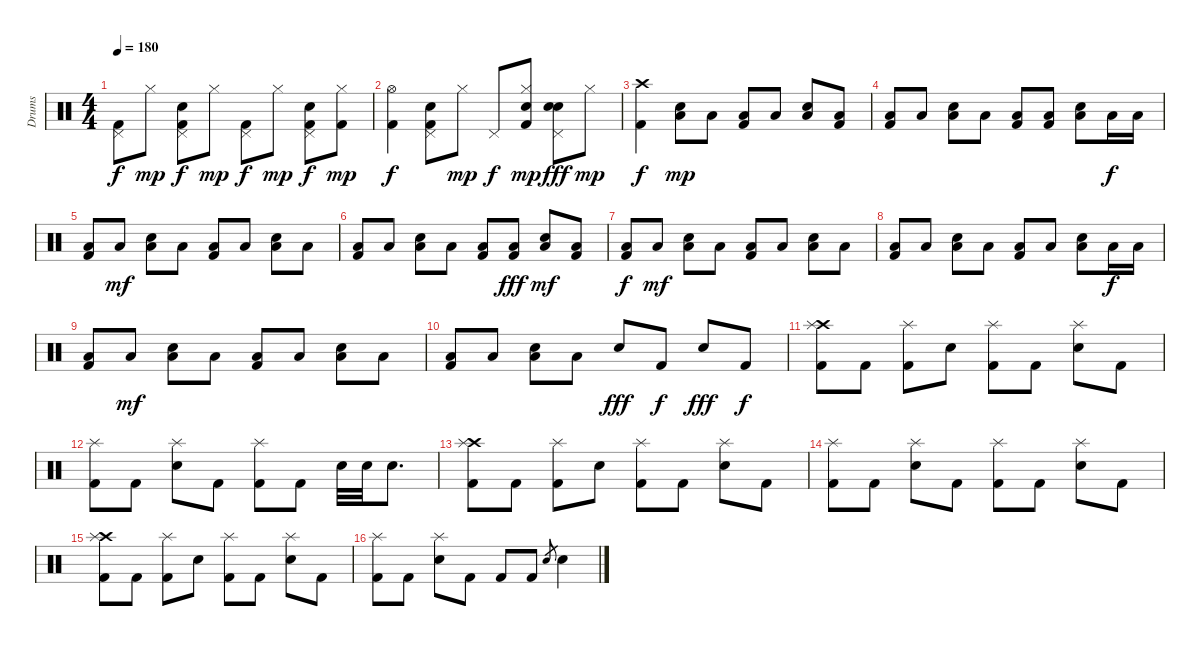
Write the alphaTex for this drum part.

\track ("Drums" "Drums") {instrument percussion}
\staff {score}
\articulation defaults
\ts (4 4)
\tempo 180
\clef neutral
\ks c
("Pedal Hi-Hat (hit)" "Kick (hit) 2").8{dy f} "Hi-Hat (closed)".8{dy mp} ("Pedal Hi-Hat (hit)" "Electric Snare (hit)" "Kick (hit) 2").8{dy f} "Hi-Hat (closed)".8{dy mp} ("Pedal Hi-Hat (hit)" "Kick (hit) 2").8{dy f} "Hi-Hat (closed)".8{dy mp} ("Pedal Hi-Hat (hit)" "Electric Snare (hit)" "Kick (hit) 2").8{dy f} ("Hi-Hat (closed)" "Kick (hit) 2").8{dy mp} |
("Hi-Hat (open)" "Kick (hit) 2").4{dy f} ("Pedal Hi-Hat (hit)" "Electric Snare (hit)" "Kick (hit) 2").8 "Hi-Hat (closed)".8{dy mp} "Pedal Hi-Hat (hit)".8{dy f} ("Hand Clap (hit)" "Hi-Hat (closed)" "Kick (hit) 2").8{dy mp} ("Hand Clap (hit)" "Pedal Hi-Hat (hit)" "Electric Snare (hit)").8{dy fff} "Hi-Hat (closed)".8{dy mp} |
("Crash high (hit)" "Kick (hit) 2").4{dy f} ("Low Floor Tom (hit)" "Electric Snare (hit)").8{dy mp} "Low Floor Tom (hit)".8 ("Low Floor Tom (hit)" "Kick (hit) 2").8 "Low Floor Tom (hit)".8 ("Low Floor Tom (hit)" "Electric Snare (hit)").8 ("Low Floor Tom (hit)" "Kick (hit) 2").8 |
("Low Floor Tom (hit)" "Kick (hit) 2").8 "Low Floor Tom (hit)".8 ("Low Floor Tom (hit)" "Electric Snare (hit)").8 "Low Floor Tom (hit)".8 ("Low Floor Tom (hit)" "Kick (hit) 2").8 ("Low Floor Tom (hit)" "Kick (hit) 2").8 ("Low Floor Tom (hit)" "Electric Snare (hit)").8 "Low Tom (hit)".16{dy f} "Low Tom (hit)".16 |
("Low Floor Tom (hit)" "Kick (hit) 2").8 "Low Floor Tom (hit)".8{dy mf} ("Low Floor Tom (hit)" "Electric Snare (hit)").8 "Low Floor Tom (hit)".8 ("Low Floor Tom (hit)" "Kick (hit) 2").8 "Low Floor Tom (hit)".8 ("Low Floor Tom (hit)" "Electric Snare (hit)").8 "Low Floor Tom (hit)".8 |
("Low Floor Tom (hit)" "Kick (hit) 2").8 "Low Floor Tom (hit)".8 ("Low Floor Tom (hit)" "Electric Snare (hit)").8 "Low Floor Tom (hit)".8 ("Low Floor Tom (hit)" "Kick (hit) 2").8 ("Low Tom (hit)" "Kick (hit) 2").8{dy fff} ("Low Floor Tom (hit)" "Electric Snare (hit)").8{dy mf} ("Low Floor Tom (hit)" "Kick (hit) 2").8 |
("Low Floor Tom (hit)" "Kick (hit) 2").8{dy f} "Low Floor Tom (hit)".8{dy mf} ("Low Floor Tom (hit)" "Electric Snare (hit)").8 "Low Floor Tom (hit)".8 ("Low Floor Tom (hit)" "Kick (hit) 2").8 "Low Floor Tom (hit)".8 ("Low Floor Tom (hit)" "Electric Snare (hit)").8 "Low Floor Tom (hit)".8 |
("Low Floor Tom (hit)" "Kick (hit) 2").8 "Low Floor Tom (hit)".8 ("Low Floor Tom (hit)" "Electric Snare (hit)").8 "Low Floor Tom (hit)".8 ("Low Floor Tom (hit)" "Kick (hit) 2").8 "Low Floor Tom (hit)".8 ("Low Floor Tom (hit)" "Electric Snare (hit)").8 "Low Tom (hit)".16{dy f} "Low Tom (hit)".16 |
("Low Floor Tom (hit)" "Kick (hit) 2").8 "Low Floor Tom (hit)".8{dy mf} ("Low Floor Tom (hit)" "Electric Snare (hit)").8 "Low Floor Tom (hit)".8 ("Low Floor Tom (hit)" "Kick (hit) 2").8 "Low Floor Tom (hit)".8 ("Low Floor Tom (hit)" "Electric Snare (hit)").8 "Low Floor Tom (hit)".8 |
("Low Floor Tom (hit)" "Kick (hit) 2").8 "Low Floor Tom (hit)".8 ("Low Floor Tom (hit)" "Electric Snare (hit)").8 "Low Floor Tom (hit)".8 "Electric Snare (hit)".8{dy fff} "Kick (hit) 2".8{dy f} "Electric Snare (hit)".8{dy fff} "Kick (hit) 2".8{dy f} |
("Crash high (hit)" "Splash (hit)" "Kick (hit) 2").8 "Kick (hit) 2".8 ("Splash (hit)" "Kick (hit) 2").8 "Electric Snare (hit)".8 ("Splash (hit)" "Kick (hit) 2").8 "Kick (hit) 2".8 ("Splash (hit)" "Electric Snare (hit)").8 "Kick (hit) 2".8 |
("Splash (hit)" "Kick (hit) 2").8 "Kick (hit) 2".8 ("Splash (hit)" "Electric Snare (hit)").8 "Kick (hit) 2".8 ("Splash (hit)" "Kick (hit) 2").8 "Kick (hit) 2".8 "Electric Snare (hit)".32 "Electric Snare (hit)".32 "Electric Snare (hit)".8{d} |
("Crash high (hit)" "Splash (hit)" "Kick (hit) 2").8 "Kick (hit) 2".8 ("Splash (hit)" "Kick (hit) 2").8 "Electric Snare (hit)".8 ("Splash (hit)" "Kick (hit) 2").8 "Kick (hit) 2".8 ("Splash (hit)" "Electric Snare (hit)").8 "Kick (hit) 2".8 |
("Splash (hit)" "Kick (hit) 2").8 "Kick (hit) 2".8 ("Splash (hit)" "Electric Snare (hit)").8 "Kick (hit) 2".8 ("Splash (hit)" "Kick (hit) 2").8 "Kick (hit) 2".8 ("Splash (hit)" "Electric Snare (hit)").8 "Kick (hit) 2".8 |
("Crash high (hit)" "Splash (hit)" "Kick (hit) 2").8 "Kick (hit) 2".8 ("Splash (hit)" "Kick (hit) 2").8 "Electric Snare (hit)".8 ("Splash (hit)" "Kick (hit) 2").8 "Kick (hit) 2".8 ("Splash (hit)" "Electric Snare (hit)").8 "Kick (hit) 2".8 |
("Splash (hit)" "Kick (hit) 2").8 "Kick (hit) 2".8 ("Splash (hit)" "Electric Snare (hit)").8 "Kick (hit) 2".8 "Kick (hit) 2".8 "Kick (hit) 2".8 "Electric Snare (hit)"{sl}.8{gr} "Electric Snare (hit)".4
